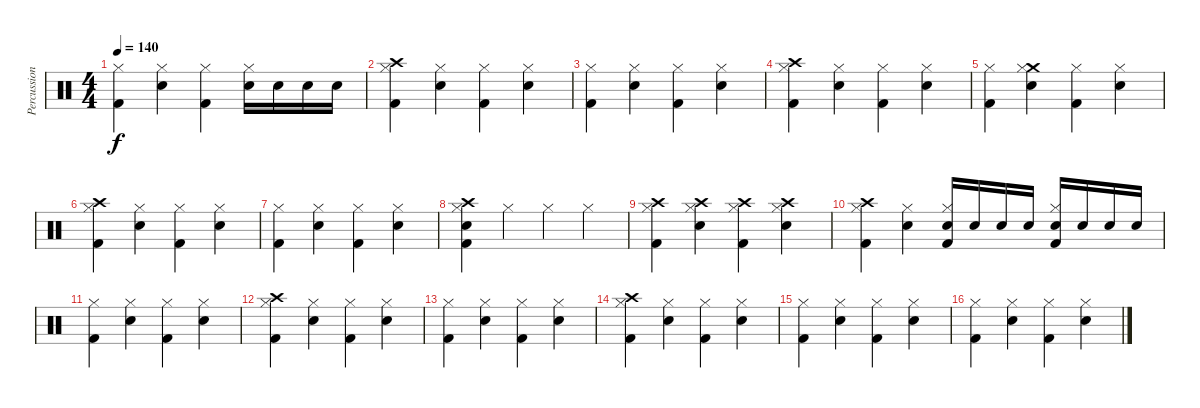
\track ("Percussions" "Percussion") {instrument percussion}
\staff {score}
\articulation defaults
\ts (4 4)
\tempo 140
\clef neutral
\ks c
("Kick (hit) 2" "Hi-Hat (closed)").4{dy f} ("Snare (hit) 2" "Hi-Hat (closed)").4 ("Kick (hit) 2" "Hi-Hat (closed)").4 ("Snare (hit) 2" "Hi-Hat (closed)").16 "Snare (hit) 2".16 "Snare (hit) 2".16 "Snare (hit) 2".16 |
("Kick (hit) 2" "Crash high (hit)" "Hi-Hat (closed)").4 ("Snare (hit) 2" "Hi-Hat (closed)").4 ("Kick (hit) 2" "Hi-Hat (closed)").4 ("Snare (hit) 2" "Hi-Hat (closed)").4 |
("Kick (hit) 2" "Hi-Hat (closed)").4 ("Snare (hit) 2" "Hi-Hat (closed)").4 ("Kick (hit) 2" "Hi-Hat (closed)").4 ("Snare (hit) 2" "Hi-Hat (closed)").4 |
("Kick (hit) 2" "Crash high (hit)" "Hi-Hat (closed)").4 ("Snare (hit) 2" "Hi-Hat (closed)").4 ("Kick (hit) 2" "Hi-Hat (closed)").4 ("Snare (hit) 2" "Hi-Hat (closed)").4 |
("Kick (hit) 2" "Hi-Hat (closed)").4 ("Snare (hit) 2" "Crash medium (hit)" "Hi-Hat (closed)").4 ("Kick (hit) 2" "Hi-Hat (closed)").4 ("Snare (hit) 2" "Hi-Hat (closed)").4 |
("Kick (hit) 2" "Crash high (hit)" "Hi-Hat (closed)").4 ("Snare (hit) 2" "Hi-Hat (closed)").4 ("Kick (hit) 2" "Hi-Hat (closed)").4 ("Snare (hit) 2" "Hi-Hat (closed)").4 |
("Kick (hit) 2" "Hi-Hat (closed)").4 ("Snare (hit) 2" "Hi-Hat (closed)").4 ("Kick (hit) 2" "Hi-Hat (closed)").4 ("Snare (hit) 2" "Hi-Hat (closed)").4 |
("Kick (hit) 2" "Snare (hit) 2" "Crash high (hit)" "Hi-Hat (closed)").4 "Hi-Hat (closed)".4 "Hi-Hat (closed)".4 "Hi-Hat (closed)".4 |
("Kick (hit) 2" "Crash high (hit)" "Hi-Hat (closed)").4 ("Snare (hit) 2" "Crash high (hit)" "Hi-Hat (closed)").4 ("Kick (hit) 2" "Crash high (hit)" "Hi-Hat (closed)").4 ("Snare (hit) 2" "Crash high (hit)" "Hi-Hat (closed)").4 |
("Kick (hit) 2" "Crash high (hit)" "Hi-Hat (closed)").4 ("Snare (hit) 2" "Hi-Hat (closed)").4 ("Kick (hit) 2" "Snare (hit) 2" "Hi-Hat (closed)").16 "Snare (hit) 2".16 "Snare (hit) 2".16 "Snare (hit) 2".16 ("Kick (hit) 2" "Snare (hit) 2" "Hi-Hat (closed)").16 "Snare (hit) 2".16 "Snare (hit) 2".16 "Snare (hit) 2".16 |
("Kick (hit) 2" "Hi-Hat (closed)").4 ("Snare (hit) 2" "Hi-Hat (closed)").4 ("Kick (hit) 2" "Hi-Hat (closed)").4 ("Snare (hit) 2" "Hi-Hat (closed)").4 |
("Kick (hit) 2" "Crash high (hit)" "Hi-Hat (closed)").4 ("Snare (hit) 2" "Hi-Hat (closed)").4 ("Kick (hit) 2" "Hi-Hat (closed)").4 ("Snare (hit) 2" "Hi-Hat (closed)").4 |
("Kick (hit) 2" "Hi-Hat (closed)").4 ("Snare (hit) 2" "Hi-Hat (closed)").4 ("Kick (hit) 2" "Hi-Hat (closed)").4 ("Snare (hit) 2" "Hi-Hat (closed)").4 |
("Kick (hit) 2" "Crash high (hit)" "Hi-Hat (closed)").4 ("Snare (hit) 2" "Hi-Hat (closed)").4 ("Kick (hit) 2" "Hi-Hat (closed)").4 ("Snare (hit) 2" "Hi-Hat (closed)").4 |
("Kick (hit) 2" "Hi-Hat (closed)").4 ("Snare (hit) 2" "Hi-Hat (closed)").4 ("Kick (hit) 2" "Hi-Hat (closed)").4 ("Snare (hit) 2" "Hi-Hat (closed)").4 |
("Kick (hit) 2" "Hi-Hat (closed)").4 ("Snare (hit) 2" "Hi-Hat (closed)").4 ("Kick (hit) 2" "Hi-Hat (closed)").4 ("Snare (hit) 2" "Hi-Hat (closed)").4
